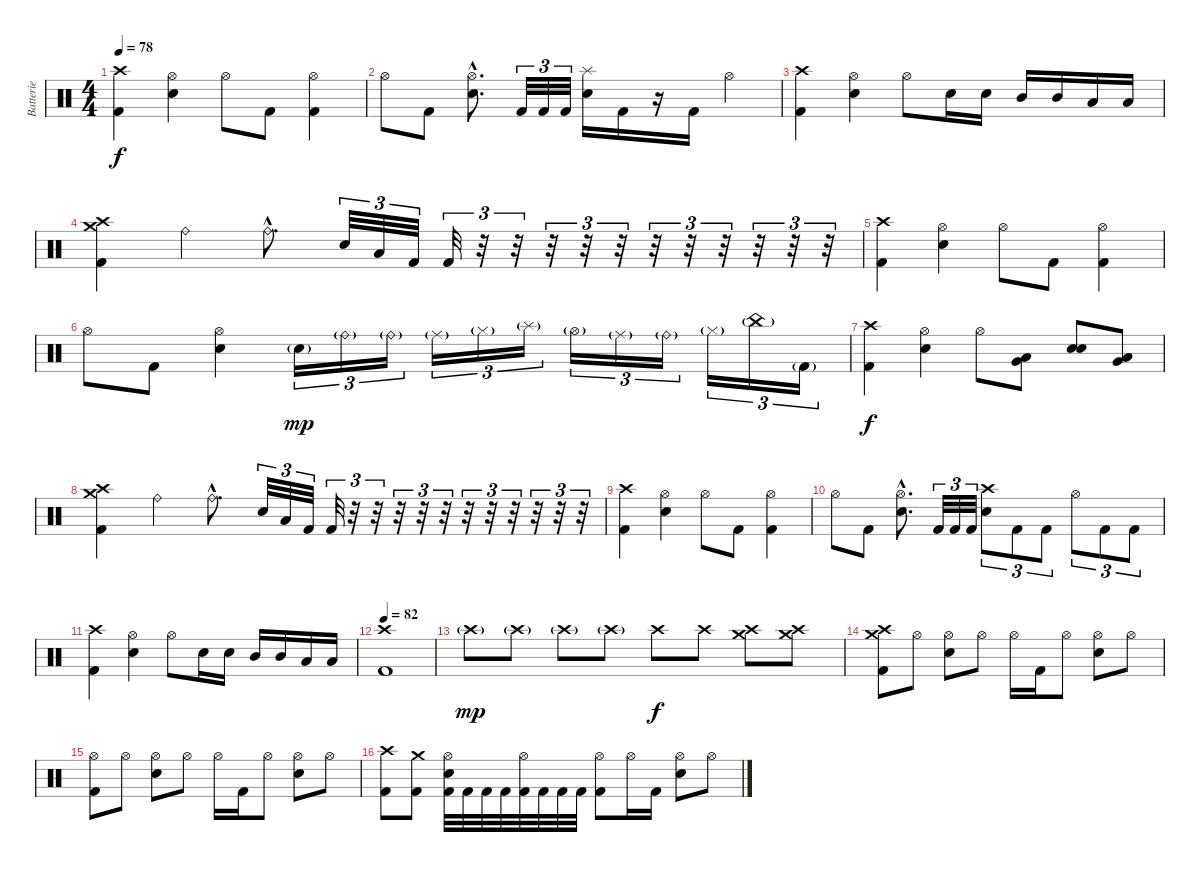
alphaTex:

\track ("Batterie" "Batterie") {instrument percussion}
\staff {score}
\articulation defaults
\ts (4 4)
\tempo 78
\clef neutral
\ks c
("Crash high (hit)" "Kick (hit) 2").4{dy f} ("Hi-Hat (open)" "Electric Snare (hit)").4 "Hi-Hat (open)".8 "Kick (hit) 2".8 ("Hi-Hat (open)" "Kick (hit) 2").4 |
"Hi-Hat (open)".8 "Kick (hit) 2".8 ("Hi-Hat (open)"{hac} "Electric Snare (hit)"{hac}).8{d} "Kick (hit) 2".32{tu (3 2)} "Kick (hit) 2".32{tu (3 2)} "Kick (hit) 2".32{tu (3 2)} ("Splash (hit)" "Electric Snare (hit)").16 "Kick (hit) 2".16 r.16 "Kick (hit) 2".16 "Hi-Hat (open)".4 |
("Crash high (hit)" "Kick (hit) 2").4 ("Hi-Hat (open)" "Electric Snare (hit)").4 "Hi-Hat (open)".8 "Electric Snare (hit)".16 "Electric Snare (hit)".16 "Mid Tom (hit)".16 "Mid Tom (hit)".16 "Low Tom (hit)".16 "Low Tom (hit)".16 |
("Crash medium (hit)" "Kick (hit) 2" "Crash high (hit)").4 "Ride (bell)".4 "Ride (bell)"{hac}.8{d} "Electric Snare (hit)".32{tu (3 2)} "Low Tom (hit)".32{tu (3 2)} "Kick (hit) 2".32{tu (3 2)} "Kick (hit) 2".32{tu (3 2)} r.32{tu (3 2)} r.32{tu (3 2)} r.32{tu (3 2)} r.32{tu (3 2)} r.32{tu (3 2)} r.32{tu (3 2)} r.32{tu (3 2)} r.32{tu (3 2)} r.32{tu (3 2)} r.32{tu (3 2)} r.32{tu (3 2)} |
("Crash high (hit)" "Kick (hit) 2").4 ("Hi-Hat (open)" "Electric Snare (hit)").4 "Hi-Hat (open)".8 "Kick (hit) 2".8 ("Hi-Hat (open)" "Kick (hit) 2").4 |
"Hi-Hat (open)".8 "Kick (hit) 2".8 ("Hi-Hat (open)" "Electric Snare (hit)").4 "Electric Snare (hit)"{g}.16{tu (3 2) dy mp} "Ride (bell)"{g}.16{tu (3 2)} "Ride (bell)"{g}.16{tu (3 2)} "Ride (middle)"{g}.16{tu (3 2)} "Hi-Hat (closed)"{g}.16{tu (3 2)} "Splash (hit)"{g}.16{tu (3 2)} "Hi-Hat (open)"{g}.16{tu (3 2)} "Ride (middle)"{g}.16{tu (3 2)} "Ride (bell)"{g}.16{tu (3 2)} "Hi-Hat (closed)"{g}.16{tu (3 2)} "China (hit)"{g}.16{tu (3 2)} "Kick (hit) 2"{g}.16{tu (3 2)} |
("Crash high (hit)" "Kick (hit) 2").4{dy f} ("Hi-Hat (open)" "Electric Snare (hit)").4 "Hi-Hat (open)".8 ("Low Tom (hit)" "Very Low Tom (hit)").8 ("Electric Snare (hit)" "Electric Snare (hit)").8 ("Low Tom (hit)" "Very Low Tom (hit)").8 |
("Crash medium (hit)" "Kick (hit) 2" "Crash high (hit)").4 "Ride (bell)".4 "Ride (bell)"{hac}.8{d} "Electric Snare (hit)".32{tu (3 2)} "Low Tom (hit)".32{tu (3 2)} "Kick (hit) 2".32{tu (3 2)} "Kick (hit) 2".32{tu (3 2)} r.32{tu (3 2)} r.32{tu (3 2)} r.32{tu (3 2)} r.32{tu (3 2)} r.32{tu (3 2)} r.32{tu (3 2)} r.32{tu (3 2)} r.32{tu (3 2)} r.32{tu (3 2)} r.32{tu (3 2)} r.32{tu (3 2)} |
("Crash high (hit)" "Kick (hit) 2").4 ("Hi-Hat (open)" "Electric Snare (hit)").4 "Hi-Hat (open)".8 "Kick (hit) 2".8 ("Hi-Hat (open)" "Kick (hit) 2").4 |
"Hi-Hat (open)".8 "Kick (hit) 2".8 ("Hi-Hat (open)"{hac} "Electric Snare (hit)"{hac}).8{d} "Kick (hit) 2".32{tu (3 2)} "Kick (hit) 2".32{tu (3 2)} "Kick (hit) 2".32{tu (3 2)} ("Crash high (hit)" "Electric Snare (hit)").8{tu (3 2)} "Kick (hit) 2".8{tu (3 2)} "Kick (hit) 2".8{tu (3 2)} "Hi-Hat (open)".8{tu (3 2)} "Kick (hit) 2".8{tu (3 2)} "Kick (hit) 2".8{tu (3 2)} |
("Crash high (hit)" "Kick (hit) 2").4 ("Hi-Hat (open)" "Electric Snare (hit)").4 "Hi-Hat (open)".8 "Electric Snare (hit)".16 "Electric Snare (hit)".16 "Mid Tom (hit)".16 "Mid Tom (hit)".16 "Low Tom (hit)".16 "Low Tom (hit)".16 |
\tempo 82
("Crash high (hit)" "Kick (hit) 2").1 |
"Crash high (hit)"{g}.8{dy mp} "Crash high (hit)"{g}.8 "Crash high (hit)"{g}.8 "Crash high (hit)"{g}.8 "Crash high (hit)".8{dy f} "Crash high (hit)".8 ("Crash medium (hit)" "Crash high (hit)").8 ("Crash medium (hit)" "Crash high (hit)").8 |
("Crash medium (hit)" "Kick (hit) 2" "Crash high (hit)").8 "Hi-Hat (open)".8 ("Hi-Hat (open)" "Electric Snare (hit)").8 "Hi-Hat (open)".8 "Hi-Hat (open)".16 "Kick (hit) 2".16 "Hi-Hat (open)".8 ("Electric Snare (hit)" "Hi-Hat (open)").8 "Hi-Hat (open)".8 |
("Kick (hit) 2" "Hi-Hat (open)").8 "Hi-Hat (open)".8 ("Hi-Hat (open)" "Electric Snare (hit)").8 "Hi-Hat (open)".8 "Hi-Hat (open)".16 "Kick (hit) 2".16 "Hi-Hat (open)".8 ("Electric Snare (hit)" "Hi-Hat (open)").8 "Hi-Hat (open)".8 |
("Crash high (hit)" "Kick (hit) 2").8 ("Crash medium (hit)" "Kick (hit) 2").8 ("Hi-Hat (open)" "Electric Snare (hit)" "Kick (hit) 2").32 "Kick (hit) 2".32 "Kick (hit) 2".32 "Kick (hit) 2".32 ("Hi-Hat (open)" "Kick (hit) 2").32 "Kick (hit) 2".32 "Kick (hit) 2".32 "Kick (hit) 2".32 ("Hi-Hat (open)" "Kick (hit) 2").8 "Hi-Hat (open)".16 "Kick (hit) 2".16 ("Hi-Hat (open)" "Electric Snare (hit)").8 "Hi-Hat (open)".8
